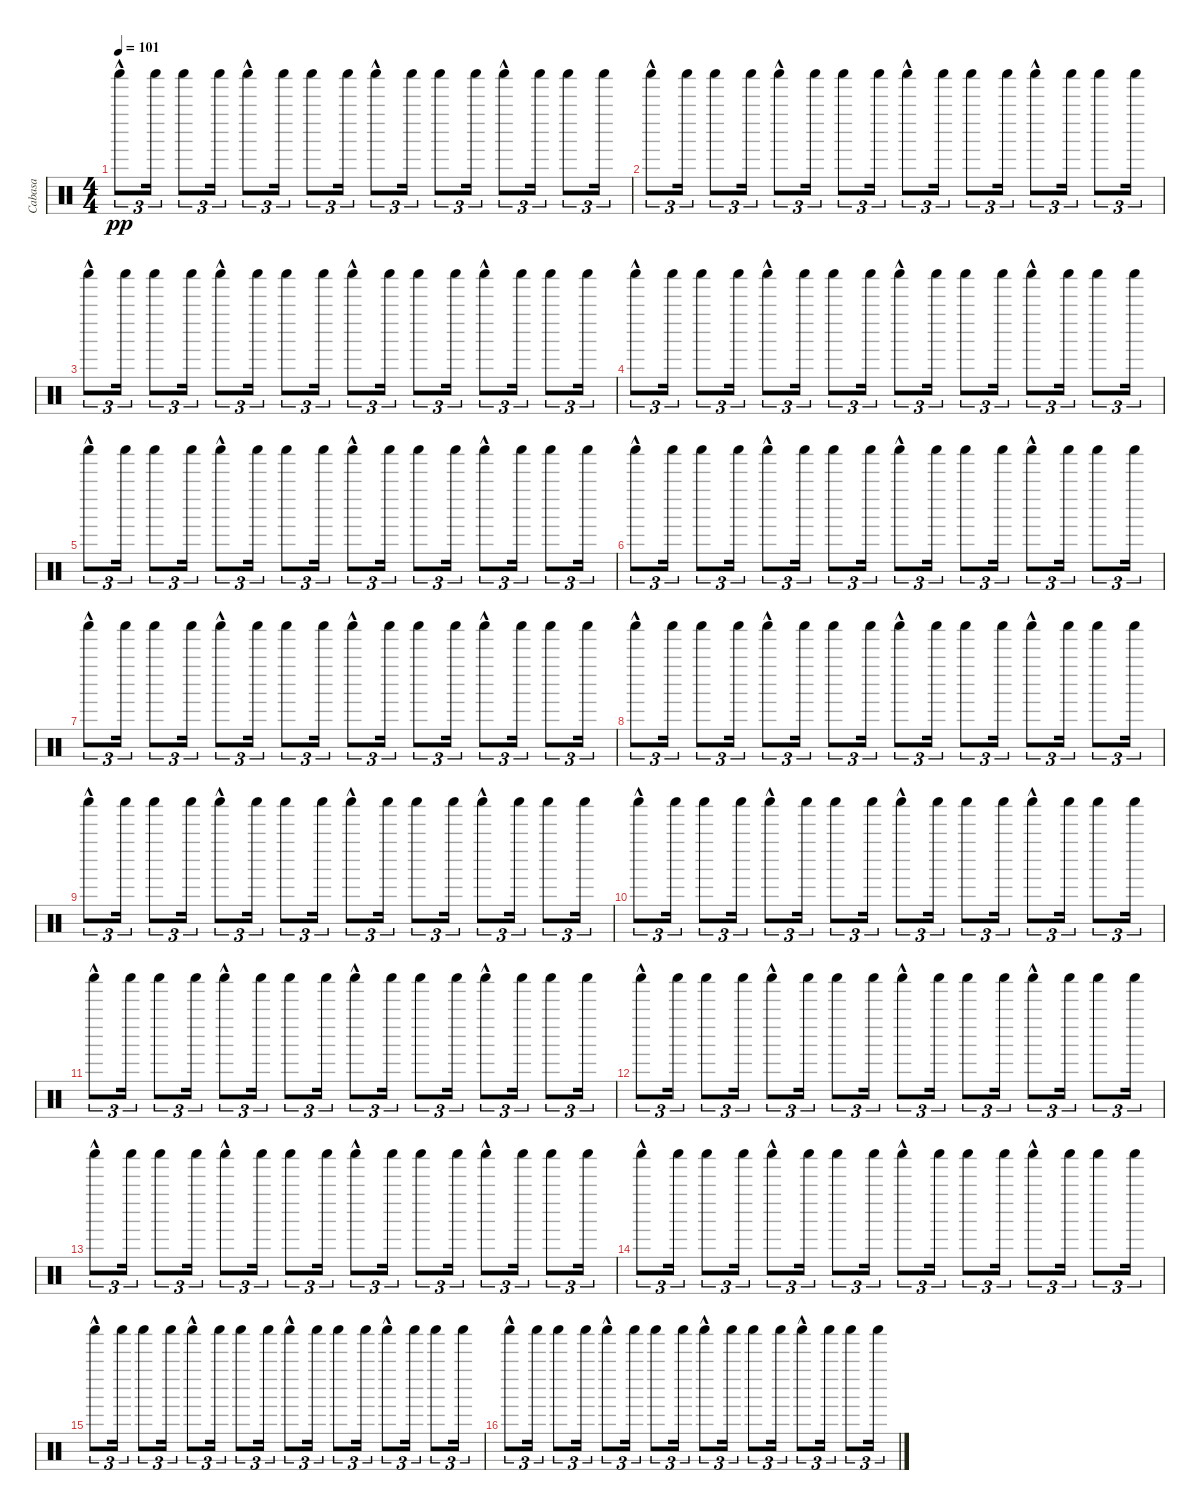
\track ("Cabasa" "Cabasa") {instrument percussion}
\staff {score}
\articulation defaults
\ts (4 4)
\tempo 101
\clef neutral
\ks c "Shaker (hit)"{hac}.8{tu (3 2) dy pp} "Shaker (hit)".16{tu (3 2)} "Shaker (hit)".8{tu (3 2)} "Shaker (hit)".16{tu (3 2)} "Shaker (hit)"{hac}.8{tu (3 2)} "Shaker (hit)".16{tu (3 2)} "Shaker (hit)".8{tu (3 2)} "Shaker (hit)".16{tu (3 2)} "Shaker (hit)"{hac}.8{tu (3 2)} "Shaker (hit)".16{tu (3 2)} "Shaker (hit)".8{tu (3 2)} "Shaker (hit)".16{tu (3 2)} "Shaker (hit)"{hac}.8{tu (3 2)} "Shaker (hit)".16{tu (3 2)} "Shaker (hit)".8{tu (3 2)} "Shaker (hit)".16{tu (3 2)}
|
"Shaker (hit)"{hac}.8{tu (3 2)} "Shaker (hit)".16{tu (3 2)} "Shaker (hit)".8{tu (3 2)} "Shaker (hit)".16{tu (3 2)} "Shaker (hit)"{hac}.8{tu (3 2)} "Shaker (hit)".16{tu (3 2)} "Shaker (hit)".8{tu (3 2)} "Shaker (hit)".16{tu (3 2)} "Shaker (hit)"{hac}.8{tu (3 2)} "Shaker (hit)".16{tu (3 2)} "Shaker (hit)".8{tu (3 2)} "Shaker (hit)".16{tu (3 2)} "Shaker (hit)"{hac}.8{tu (3 2)} "Shaker (hit)".16{tu (3 2)} "Shaker (hit)".8{tu (3 2)} "Shaker (hit)".16{tu (3 2)} |
"Shaker (hit)"{hac}.8{tu (3 2)} "Shaker (hit)".16{tu (3 2)} "Shaker (hit)".8{tu (3 2)} "Shaker (hit)".16{tu (3 2)} "Shaker (hit)"{hac}.8{tu (3 2)} "Shaker (hit)".16{tu (3 2)} "Shaker (hit)".8{tu (3 2)} "Shaker (hit)".16{tu (3 2)} "Shaker (hit)"{hac}.8{tu (3 2)} "Shaker (hit)".16{tu (3 2)} "Shaker (hit)".8{tu (3 2)} "Shaker (hit)".16{tu (3 2)} "Shaker (hit)"{hac}.8{tu (3 2)} "Shaker (hit)".16{tu (3 2)} "Shaker (hit)".8{tu (3 2)} "Shaker (hit)".16{tu (3 2)} |
"Shaker (hit)"{hac}.8{tu (3 2)} "Shaker (hit)".16{tu (3 2)} "Shaker (hit)".8{tu (3 2)} "Shaker (hit)".16{tu (3 2)} "Shaker (hit)"{hac}.8{tu (3 2)} "Shaker (hit)".16{tu (3 2)} "Shaker (hit)".8{tu (3 2)} "Shaker (hit)".16{tu (3 2)} "Shaker (hit)"{hac}.8{tu (3 2)} "Shaker (hit)".16{tu (3 2)} "Shaker (hit)".8{tu (3 2)} "Shaker (hit)".16{tu (3 2)} "Shaker (hit)"{hac}.8{tu (3 2)} "Shaker (hit)".16{tu (3 2)} "Shaker (hit)".8{tu (3 2)} "Shaker (hit)".16{tu (3 2)} |
"Shaker (hit)"{hac}.8{tu (3 2)} "Shaker (hit)".16{tu (3 2)} "Shaker (hit)".8{tu (3 2)} "Shaker (hit)".16{tu (3 2)} "Shaker (hit)"{hac}.8{tu (3 2)} "Shaker (hit)".16{tu (3 2)} "Shaker (hit)".8{tu (3 2)} "Shaker (hit)".16{tu (3 2)} "Shaker (hit)"{hac}.8{tu (3 2)} "Shaker (hit)".16{tu (3 2)} "Shaker (hit)".8{tu (3 2)} "Shaker (hit)".16{tu (3 2)} "Shaker (hit)"{hac}.8{tu (3 2)} "Shaker (hit)".16{tu (3 2)} "Shaker (hit)".8{tu (3 2)} "Shaker (hit)".16{tu (3 2)} |
"Shaker (hit)"{hac}.8{tu (3 2)} "Shaker (hit)".16{tu (3 2)} "Shaker (hit)".8{tu (3 2)} "Shaker (hit)".16{tu (3 2)} "Shaker (hit)"{hac}.8{tu (3 2)} "Shaker (hit)".16{tu (3 2)} "Shaker (hit)".8{tu (3 2)} "Shaker (hit)".16{tu (3 2)} "Shaker (hit)"{hac}.8{tu (3 2)} "Shaker (hit)".16{tu (3 2)} "Shaker (hit)".8{tu (3 2)} "Shaker (hit)".16{tu (3 2)} "Shaker (hit)"{hac}.8{tu (3 2)} "Shaker (hit)".16{tu (3 2)} "Shaker (hit)".8{tu (3 2)} "Shaker (hit)".16{tu (3 2)} |
"Shaker (hit)"{hac}.8{tu (3 2)} "Shaker (hit)".16{tu (3 2)} "Shaker (hit)".8{tu (3 2)} "Shaker (hit)".16{tu (3 2)} "Shaker (hit)"{hac}.8{tu (3 2)} "Shaker (hit)".16{tu (3 2)} "Shaker (hit)".8{tu (3 2)} "Shaker (hit)".16{tu (3 2)} "Shaker (hit)"{hac}.8{tu (3 2)} "Shaker (hit)".16{tu (3 2)} "Shaker (hit)".8{tu (3 2)} "Shaker (hit)".16{tu (3 2)} "Shaker (hit)"{hac}.8{tu (3 2)} "Shaker (hit)".16{tu (3 2)} "Shaker (hit)".8{tu (3 2)} "Shaker (hit)".16{tu (3 2)} |
"Shaker (hit)"{hac}.8{tu (3 2)} "Shaker (hit)".16{tu (3 2)} "Shaker (hit)".8{tu (3 2)} "Shaker (hit)".16{tu (3 2)} "Shaker (hit)"{hac}.8{tu (3 2)} "Shaker (hit)".16{tu (3 2)} "Shaker (hit)".8{tu (3 2)} "Shaker (hit)".16{tu (3 2)} "Shaker (hit)"{hac}.8{tu (3 2)} "Shaker (hit)".16{tu (3 2)} "Shaker (hit)".8{tu (3 2)} "Shaker (hit)".16{tu (3 2)} "Shaker (hit)"{hac}.8{tu (3 2)} "Shaker (hit)".16{tu (3 2)} "Shaker (hit)".8{tu (3 2)} "Shaker (hit)".16{tu (3 2)} |
"Shaker (hit)"{hac}.8{tu (3 2)} "Shaker (hit)".16{tu (3 2)} "Shaker (hit)".8{tu (3 2)} "Shaker (hit)".16{tu (3 2)} "Shaker (hit)"{hac}.8{tu (3 2)} "Shaker (hit)".16{tu (3 2)} "Shaker (hit)".8{tu (3 2)} "Shaker (hit)".16{tu (3 2)} "Shaker (hit)"{hac}.8{tu (3 2)} "Shaker (hit)".16{tu (3 2)} "Shaker (hit)".8{tu (3 2)} "Shaker (hit)".16{tu (3 2)} "Shaker (hit)"{hac}.8{tu (3 2)} "Shaker (hit)".16{tu (3 2)} "Shaker (hit)".8{tu (3 2)} "Shaker (hit)".16{tu (3 2)} |
"Shaker (hit)"{hac}.8{tu (3 2)} "Shaker (hit)".16{tu (3 2)} "Shaker (hit)".8{tu (3 2)} "Shaker (hit)".16{tu (3 2)} "Shaker (hit)"{hac}.8{tu (3 2)} "Shaker (hit)".16{tu (3 2)} "Shaker (hit)".8{tu (3 2)} "Shaker (hit)".16{tu (3 2)} "Shaker (hit)"{hac}.8{tu (3 2)} "Shaker (hit)".16{tu (3 2)} "Shaker (hit)".8{tu (3 2)} "Shaker (hit)".16{tu (3 2)} "Shaker (hit)"{hac}.8{tu (3 2)} "Shaker (hit)".16{tu (3 2)} "Shaker (hit)".8{tu (3 2)} "Shaker (hit)".16{tu (3 2)} |
"Shaker (hit)"{hac}.8{tu (3 2)} "Shaker (hit)".16{tu (3 2)} "Shaker (hit)".8{tu (3 2)} "Shaker (hit)".16{tu (3 2)} "Shaker (hit)"{hac}.8{tu (3 2)} "Shaker (hit)".16{tu (3 2)} "Shaker (hit)".8{tu (3 2)} "Shaker (hit)".16{tu (3 2)} "Shaker (hit)"{hac}.8{tu (3 2)} "Shaker (hit)".16{tu (3 2)} "Shaker (hit)".8{tu (3 2)} "Shaker (hit)".16{tu (3 2)} "Shaker (hit)"{hac}.8{tu (3 2)} "Shaker (hit)".16{tu (3 2)} "Shaker (hit)".8{tu (3 2)} "Shaker (hit)".16{tu (3 2)} |
"Shaker (hit)"{hac}.8{tu (3 2)} "Shaker (hit)".16{tu (3 2)} "Shaker (hit)".8{tu (3 2)} "Shaker (hit)".16{tu (3 2)} "Shaker (hit)"{hac}.8{tu (3 2)} "Shaker (hit)".16{tu (3 2)} "Shaker (hit)".8{tu (3 2)} "Shaker (hit)".16{tu (3 2)} "Shaker (hit)"{hac}.8{tu (3 2)} "Shaker (hit)".16{tu (3 2)} "Shaker (hit)".8{tu (3 2)} "Shaker (hit)".16{tu (3 2)} "Shaker (hit)"{hac}.8{tu (3 2)} "Shaker (hit)".16{tu (3 2)} "Shaker (hit)".8{tu (3 2)} "Shaker (hit)".16{tu (3 2)} |
"Shaker (hit)"{hac}.8{tu (3 2)} "Shaker (hit)".16{tu (3 2)} "Shaker (hit)".8{tu (3 2)} "Shaker (hit)".16{tu (3 2)} "Shaker (hit)"{hac}.8{tu (3 2)} "Shaker (hit)".16{tu (3 2)} "Shaker (hit)".8{tu (3 2)} "Shaker (hit)".16{tu (3 2)} "Shaker (hit)"{hac}.8{tu (3 2)} "Shaker (hit)".16{tu (3 2)} "Shaker (hit)".8{tu (3 2)} "Shaker (hit)".16{tu (3 2)} "Shaker (hit)"{hac}.8{tu (3 2)} "Shaker (hit)".16{tu (3 2)} "Shaker (hit)".8{tu (3 2)} "Shaker (hit)".16{tu (3 2)} |
"Shaker (hit)"{hac}.8{tu (3 2)} "Shaker (hit)".16{tu (3 2)} "Shaker (hit)".8{tu (3 2)} "Shaker (hit)".16{tu (3 2)} "Shaker (hit)"{hac}.8{tu (3 2)} "Shaker (hit)".16{tu (3 2)} "Shaker (hit)".8{tu (3 2)} "Shaker (hit)".16{tu (3 2)} "Shaker (hit)"{hac}.8{tu (3 2)} "Shaker (hit)".16{tu (3 2)} "Shaker (hit)".8{tu (3 2)} "Shaker (hit)".16{tu (3 2)} "Shaker (hit)"{hac}.8{tu (3 2)} "Shaker (hit)".16{tu (3 2)} "Shaker (hit)".8{tu (3 2)} "Shaker (hit)".16{tu (3 2)} |
"Shaker (hit)"{hac}.8{tu (3 2)} "Shaker (hit)".16{tu (3 2)} "Shaker (hit)".8{tu (3 2)} "Shaker (hit)".16{tu (3 2)} "Shaker (hit)"{hac}.8{tu (3 2)} "Shaker (hit)".16{tu (3 2)} "Shaker (hit)".8{tu (3 2)} "Shaker (hit)".16{tu (3 2)} "Shaker (hit)"{hac}.8{tu (3 2)} "Shaker (hit)".16{tu (3 2)} "Shaker (hit)".8{tu (3 2)} "Shaker (hit)".16{tu (3 2)} "Shaker (hit)"{hac}.8{tu (3 2)} "Shaker (hit)".16{tu (3 2)} "Shaker (hit)".8{tu (3 2)} "Shaker (hit)".16{tu (3 2)} |
"Shaker (hit)"{hac}.8{tu (3 2)} "Shaker (hit)".16{tu (3 2)} "Shaker (hit)".8{tu (3 2)} "Shaker (hit)".16{tu (3 2)} "Shaker (hit)"{hac}.8{tu (3 2)} "Shaker (hit)".16{tu (3 2)} "Shaker (hit)".8{tu (3 2)} "Shaker (hit)".16{tu (3 2)} "Shaker (hit)"{hac}.8{tu (3 2)} "Shaker (hit)".16{tu (3 2)} "Shaker (hit)".8{tu (3 2)} "Shaker (hit)".16{tu (3 2)} "Shaker (hit)"{hac}.8{tu (3 2)} "Shaker (hit)".16{tu (3 2)} "Shaker (hit)".8{tu (3 2)} "Shaker (hit)".16{tu (3 2)}
